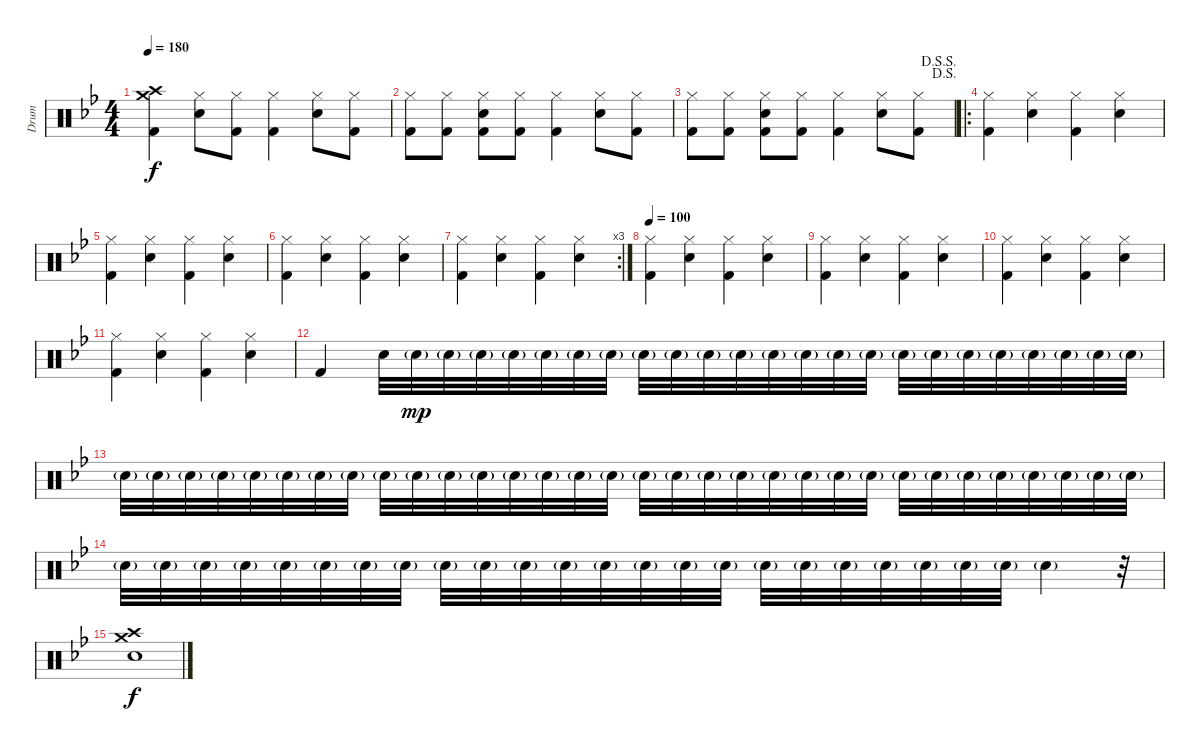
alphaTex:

\track ("Drum" "Drum") {instrument percussion}
\staff {score}
\articulation defaults
\ts (4 4)
\tempo 180
\clef neutral
\ks bb
("Crash medium (hit)" "Crash high (hit)" "Kick (hit) 2").4{dy f} ("Hi-Hat (closed)" "Electric Snare (hit)").8 ("Hi-Hat (closed)" "Kick (hit) 2").8 ("Hi-Hat (closed)" "Kick (hit) 2").4 ("Hi-Hat (closed)" "Electric Snare (hit)").8 ("Hi-Hat (closed)" "Kick (hit) 2").8 |
("Hi-Hat (closed)" "Kick (hit) 2").8 ("Hi-Hat (closed)" "Kick (hit) 2").8 ("Hi-Hat (closed)" "Kick (hit) 2" "Electric Snare (hit)").8 ("Hi-Hat (closed)" "Kick (hit) 2").8 ("Hi-Hat (closed)" "Kick (hit) 2").4 ("Hi-Hat (closed)" "Electric Snare (hit)").8 ("Hi-Hat (closed)" "Kick (hit) 2").8 |
\jump dalsegno
\jump dalsegnosegno
("Hi-Hat (closed)" "Kick (hit) 2").8 ("Hi-Hat (closed)" "Kick (hit) 2").8 ("Hi-Hat (closed)" "Kick (hit) 2" "Electric Snare (hit)").8 ("Hi-Hat (closed)" "Kick (hit) 2").8 ("Hi-Hat (closed)" "Kick (hit) 2").4 ("Hi-Hat (closed)" "Electric Snare (hit)").8 ("Hi-Hat (closed)" "Kick (hit) 2").8 |
\ro
("Hi-Hat (closed)" "Kick (hit) 2").4 ("Hi-Hat (closed)" "Electric Snare (hit)").4 ("Hi-Hat (closed)" "Kick (hit) 2").4 ("Hi-Hat (closed)" "Electric Snare (hit)").4 |
("Hi-Hat (closed)" "Kick (hit) 2").4 ("Hi-Hat (closed)" "Electric Snare (hit)").4 ("Hi-Hat (closed)" "Kick (hit) 2").4 ("Hi-Hat (closed)" "Electric Snare (hit)").4 |
("Hi-Hat (closed)" "Kick (hit) 2").4 ("Hi-Hat (closed)" "Electric Snare (hit)").4 ("Hi-Hat (closed)" "Kick (hit) 2").4 ("Hi-Hat (closed)" "Electric Snare (hit)").4 |
\rc 3
("Hi-Hat (closed)" "Kick (hit) 2").4 ("Hi-Hat (closed)" "Electric Snare (hit)").4 ("Hi-Hat (closed)" "Kick (hit) 2").4 ("Hi-Hat (closed)" "Electric Snare (hit)").4 |
\tempo 100
("Hi-Hat (closed)" "Kick (hit) 2").4 ("Hi-Hat (closed)" "Electric Snare (hit)").4 ("Hi-Hat (closed)" "Kick (hit) 2").4 ("Hi-Hat (closed)" "Electric Snare (hit)").4 |
("Hi-Hat (closed)" "Kick (hit) 2").4 ("Hi-Hat (closed)" "Electric Snare (hit)").4 ("Hi-Hat (closed)" "Kick (hit) 2").4 ("Hi-Hat (closed)" "Electric Snare (hit)").4 |
("Hi-Hat (closed)" "Kick (hit) 2").4 ("Hi-Hat (closed)" "Electric Snare (hit)").4 ("Hi-Hat (closed)" "Kick (hit) 2").4 ("Hi-Hat (closed)" "Electric Snare (hit)").4 |
("Hi-Hat (closed)" "Kick (hit) 2").4 ("Hi-Hat (closed)" "Electric Snare (hit)").4 ("Hi-Hat (closed)" "Kick (hit) 2").4 ("Hi-Hat (closed)" "Electric Snare (hit)").4 |
"Kick (hit) 2".4 "Electric Snare (hit)".32 "Electric Snare (hit)"{g}.32{dy mp} "Electric Snare (hit)"{g}.32 "Electric Snare (hit)"{g}.32 "Electric Snare (hit)"{g}.32 "Electric Snare (hit)"{g}.32 "Electric Snare (hit)"{g}.32 "Electric Snare (hit)"{g}.32 "Electric Snare (hit)"{g}.32 "Electric Snare (hit)"{g}.32 "Electric Snare (hit)"{g}.32 "Electric Snare (hit)"{g}.32 "Electric Snare (hit)"{g}.32 "Electric Snare (hit)"{g}.32 "Electric Snare (hit)"{g}.32 "Electric Snare (hit)"{g}.32 "Electric Snare (hit)"{g}.32 "Electric Snare (hit)"{g}.32 "Electric Snare (hit)"{g}.32 "Electric Snare (hit)"{g}.32 "Electric Snare (hit)"{g}.32 "Electric Snare (hit)"{g}.32 "Electric Snare (hit)"{g}.32 "Electric Snare (hit)"{g}.32 |
"Electric Snare (hit)"{g}.32 "Electric Snare (hit)"{g}.32 "Electric Snare (hit)"{g}.32 "Electric Snare (hit)"{g}.32 "Electric Snare (hit)"{g}.32 "Electric Snare (hit)"{g}.32 "Electric Snare (hit)"{g}.32 "Electric Snare (hit)"{g}.32 "Electric Snare (hit)"{g}.32 "Electric Snare (hit)"{g}.32 "Electric Snare (hit)"{g}.32 "Electric Snare (hit)"{g}.32 "Electric Snare (hit)"{g}.32 "Electric Snare (hit)"{g}.32 "Electric Snare (hit)"{g}.32 "Electric Snare (hit)"{g}.32 "Electric Snare (hit)"{g}.32 "Electric Snare (hit)"{g}.32 "Electric Snare (hit)"{g}.32 "Electric Snare (hit)"{g}.32 "Electric Snare (hit)"{g}.32 "Electric Snare (hit)"{g}.32 "Electric Snare (hit)"{g}.32 "Electric Snare (hit)"{g}.32 "Electric Snare (hit)"{g}.32 "Electric Snare (hit)"{g}.32 "Electric Snare (hit)"{g}.32 "Electric Snare (hit)"{g}.32 "Electric Snare (hit)"{g}.32 "Electric Snare (hit)"{g}.32 "Electric Snare (hit)"{g}.32 "Electric Snare (hit)"{g}.32 |
"Electric Snare (hit)"{g}.32 "Electric Snare (hit)"{g}.32 "Electric Snare (hit)"{g}.32 "Electric Snare (hit)"{g}.32 "Electric Snare (hit)"{g}.32 "Electric Snare (hit)"{g}.32 "Electric Snare (hit)"{g}.32 "Electric Snare (hit)"{g}.32 "Electric Snare (hit)"{g}.32 "Electric Snare (hit)"{g}.32 "Electric Snare (hit)"{g}.32 "Electric Snare (hit)"{g}.32 "Electric Snare (hit)"{g}.32 "Electric Snare (hit)"{g}.32 "Electric Snare (hit)"{g}.32 "Electric Snare (hit)"{g}.32 "Electric Snare (hit)"{g}.32 "Electric Snare (hit)"{g}.32 "Electric Snare (hit)"{g}.32 "Electric Snare (hit)"{g}.32 "Electric Snare (hit)"{g}.32 "Electric Snare (hit)"{g}.32 "Electric Snare (hit)"{g}.32 "Electric Snare (hit)"{g}.4 r.32 |
("Crash medium (hit)" "Crash high (hit)" "Electric Snare (hit)").1{dy f}
